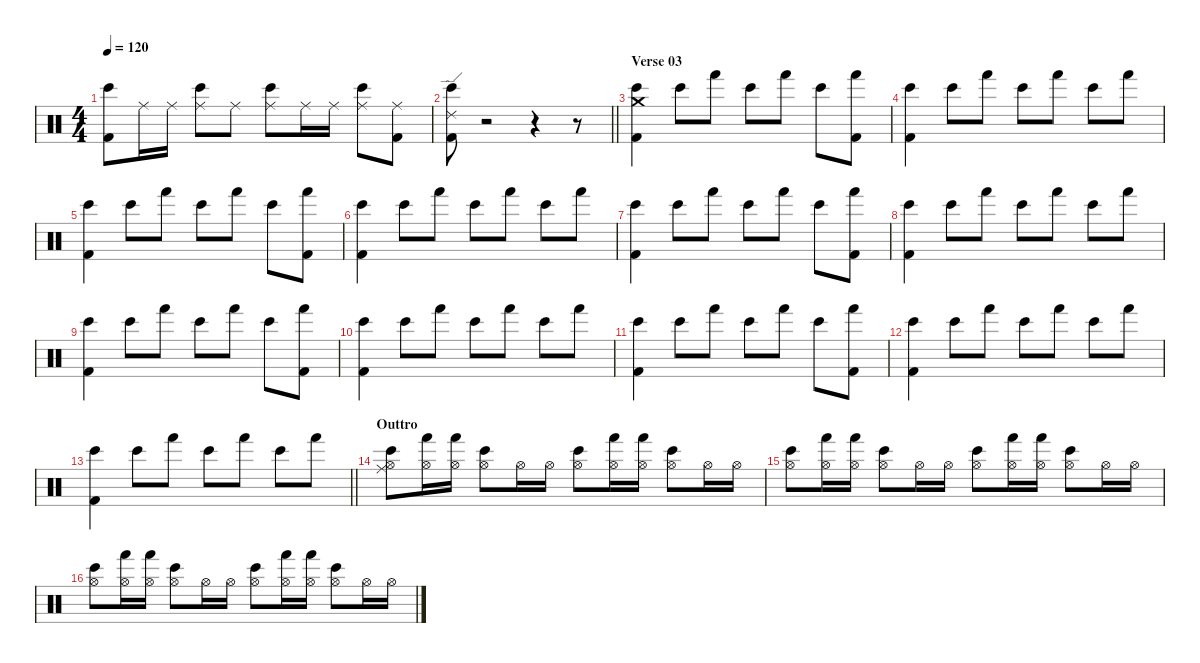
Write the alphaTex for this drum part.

\defaultSystemsLayout 4
\hideDynamics
\bracketExtendMode nobrackets
\singleTrackTrackNamePolicy hidden
\multiTrackTrackNamePolicy hidden
\firstSystemTrackNameMode fullname
\firstSystemTrackNameOrientation horizontal
\otherSystemsTrackNameOrientation horizontal
\track ("Bateria" "drm.") {instrument percussion}
\staff {score}
\articulation defaults
\ts (4 4)
\tempo 120
\clef neutral
\ks c
("Kick (hit) 2" "Bongo High (hit)").8{dy f beam Down} "Ride (middle)".16{dy mf beam Down} "Ride (middle)".16{beam Down} ("Bongo High (hit)" "Ride (middle)").8{dy f beam Down} "Ride (middle)".8{dy mf beam Down} ("Bongo High (hit)" "Ride (middle)").8{dy f beam Down} "Ride (middle)".16{dy mf beam Down} "Ride (middle)".16{beam Down} ("Bongo High (hit)" "Ride (middle)").8{dy f beam Down} ("Kick (hit) 2" "Ride (middle)").8{beam Down} |
\barLineRight lightlight
("Kick (hit) 2" "Bongo High (hit)" "Ride (edge) 2").8{beam Down} r.2{beam Down} r.4{beam Down} r.8{beam Down} |
\section ("" "Verse 03")
("Kick (hit) 2" "Bongo High (hit)" "Crash medium (hit)").4{beam Down} "Bongo High (hit)".8{beam Down} "Hand (hit)".8{dy mf beam Down} "Bongo High (hit)".8{dy f beam Down} "Hand (hit)".8{dy mf beam Down} "Bongo High (hit)".8{dy f beam Down} ("Kick (hit) 2" "Hand (hit)").8{beam Down} |
("Kick (hit) 2" "Bongo High (hit)").4{beam Down} "Bongo High (hit)".8{beam Down} "Hand (hit)".8{dy mf beam Down} "Bongo High (hit)".8{dy f beam Down} "Hand (hit)".8{dy mf beam Down} "Bongo High (hit)".8{dy f beam Down} "Hand (hit)".8{dy mf beam Down} |
("Kick (hit) 2" "Bongo High (hit)").4{dy f beam Down} "Bongo High (hit)".8{beam Down} "Hand (hit)".8{dy mf beam Down} "Bongo High (hit)".8{dy f beam Down} "Hand (hit)".8{dy mf beam Down} "Bongo High (hit)".8{dy f beam Down} ("Kick (hit) 2" "Hand (hit)").8{beam Down} |
("Kick (hit) 2" "Bongo High (hit)").4{beam Down} "Bongo High (hit)".8{beam Down} "Hand (hit)".8{dy mf beam Down} "Bongo High (hit)".8{dy f beam Down} "Hand (hit)".8{dy mf beam Down} "Bongo High (hit)".8{dy f beam Down} "Hand (hit)".8{dy mf beam Down} |
("Kick (hit) 2" "Bongo High (hit)").4{dy f beam Down} "Bongo High (hit)".8{beam Down} "Hand (hit)".8{dy mf beam Down} "Bongo High (hit)".8{dy f beam Down} "Hand (hit)".8{dy mf beam Down} "Bongo High (hit)".8{dy f beam Down} ("Kick (hit) 2" "Hand (hit)").8{beam Down} |
("Kick (hit) 2" "Bongo High (hit)").4{beam Down} "Bongo High (hit)".8{beam Down} "Hand (hit)".8{dy mf beam Down} "Bongo High (hit)".8{dy f beam Down} "Hand (hit)".8{dy mf beam Down} "Bongo High (hit)".8{dy f beam Down} "Hand (hit)".8{dy mf beam Down} |
("Kick (hit) 2" "Bongo High (hit)").4{dy f beam Down} "Bongo High (hit)".8{beam Down} "Hand (hit)".8{dy mf beam Down} "Bongo High (hit)".8{dy f beam Down} "Hand (hit)".8{dy mf beam Down} "Bongo High (hit)".8{dy f beam Down} ("Kick (hit) 2" "Hand (hit)").8{beam Down} |
("Kick (hit) 2" "Bongo High (hit)").4{beam Down} "Bongo High (hit)".8{beam Down} "Hand (hit)".8{dy mf beam Down} "Bongo High (hit)".8{dy f beam Down} "Hand (hit)".8{dy mf beam Down} "Bongo High (hit)".8{dy f beam Down} "Hand (hit)".8{dy mf beam Down} |
("Kick (hit) 2" "Bongo High (hit)").4{dy f beam Down} "Bongo High (hit)".8{beam Down} "Hand (hit)".8{dy mf beam Down} "Bongo High (hit)".8{dy f beam Down} "Hand (hit)".8{dy mf beam Down} "Bongo High (hit)".8{dy f beam Down} ("Kick (hit) 2" "Hand (hit)").8{beam Down} |
("Kick (hit) 2" "Bongo High (hit)").4{beam Down} "Bongo High (hit)".8{beam Down} "Hand (hit)".8{dy mf beam Down} "Bongo High (hit)".8{dy f beam Down} "Hand (hit)".8{dy mf beam Down} "Bongo High (hit)".8{dy f beam Down} "Hand (hit)".8{dy mf beam Down} |
\barLineRight lightlight
("Kick (hit) 2" "Bongo High (hit)").4{dy f beam Down} "Bongo High (hit)".8{beam Down} "Hand (hit)".8{dy mf beam Down} "Bongo High (hit)".8{dy f beam Down} "Hand (hit)".8{dy mf beam Down} "Bongo High (hit)".8{dy f beam Down} "Hand (hit)".8{dy mf beam Down} |
\section ("" "Outtro")
("Hi-Hat (open)" "Bongo High (hit)" "Ride (middle)").8{beam Down} ("Hi-Hat (open)" "Hand (hit)").16{dy mp beam Down} ("Hi-Hat (open)" "Hand (hit)").16{beam Down} ("Hi-Hat (open)" "Bongo High (hit)").8{dy f beam Down} "Hi-Hat (open)".16{dy mp beam Down} "Hi-Hat (open)".16{beam Down} ("Hi-Hat (open)" "Bongo High (hit)").8{dy mf beam Down} ("Hi-Hat (open)" "Hand (hit)").16{dy mp beam Down} ("Hi-Hat (open)" "Hand (hit)").16{beam Down} ("Hi-Hat (open)" "Bongo High (hit)").8{dy f beam Down} "Hi-Hat (open)".16{dy mp beam Down} "Hi-Hat (open)".16{beam Down} |
("Hi-Hat (open)" "Bongo High (hit)").8{dy mf beam Down} ("Hi-Hat (open)" "Hand (hit)").16{dy mp beam Down} ("Hi-Hat (open)" "Hand (hit)").16{beam Down} ("Hi-Hat (open)" "Bongo High (hit)").8{dy f beam Down} "Hi-Hat (open)".16{dy mp beam Down} "Hi-Hat (open)".16{beam Down} ("Hi-Hat (open)" "Bongo High (hit)").8{dy mf beam Down} ("Hi-Hat (open)" "Hand (hit)").16{dy mp beam Down} ("Hi-Hat (open)" "Hand (hit)").16{beam Down} ("Hi-Hat (open)" "Bongo High (hit)").8{dy f beam Down} "Hi-Hat (open)".16{dy mp beam Down} "Hi-Hat (open)".16{beam Down} |
("Hi-Hat (open)" "Bongo High (hit)").8{dy mf beam Down} ("Hi-Hat (open)" "Hand (hit)").16{dy mp beam Down} ("Hi-Hat (open)" "Hand (hit)").16{beam Down} ("Hi-Hat (open)" "Bongo High (hit)").8{dy f beam Down} "Hi-Hat (open)".16{dy mp beam Down} "Hi-Hat (open)".16{beam Down} ("Hi-Hat (open)" "Bongo High (hit)").8{dy mf beam Down} ("Hi-Hat (open)" "Hand (hit)").16{dy mp beam Down} ("Hi-Hat (open)" "Hand (hit)").16{beam Down} ("Hi-Hat (open)" "Bongo High (hit)").8{dy f beam Down} "Hi-Hat (open)".16{dy mp beam Down} "Hi-Hat (open)".16{beam Down}
